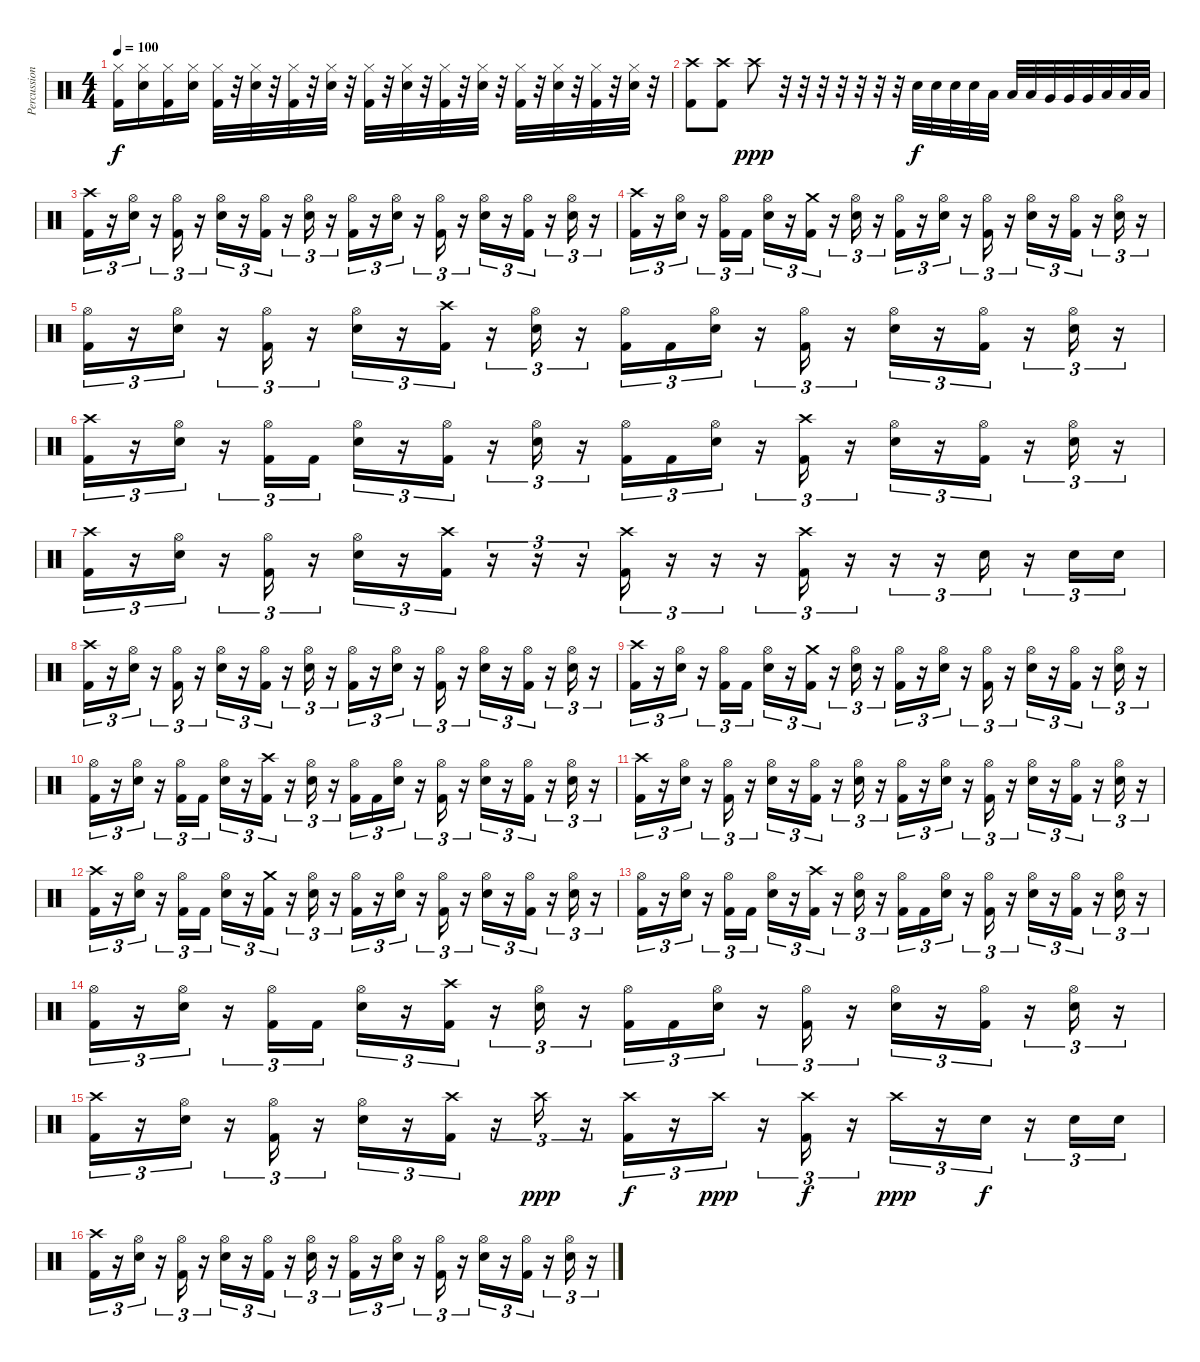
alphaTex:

\track ("Percussion" "Percussion") {instrument percussion}
\staff {score}
\articulation defaults
\ts (4 4)
\tempo 100
\clef neutral
\ks c
("Kick (hit) 2" "Hi-Hat (closed)").16{dy f} ("Hi-Hat (closed)" "Snare (hit) 2").16 ("Kick (hit) 2" "Hi-Hat (closed)").16 ("Hi-Hat (closed)" "Snare (hit) 2").16 ("Kick (hit) 2" "Hi-Hat (closed)").32 r.32 ("Snare (hit) 2" "Hi-Hat (closed)").32 r.32 ("Kick (hit) 2" "Hi-Hat (closed)").32 r.32 ("Hi-Hat (closed)" "Snare (hit) 2").32 r.32 ("Kick (hit) 2" "Hi-Hat (closed)").32 r.32 ("Hi-Hat (closed)" "Snare (hit) 2").32 r.32 ("Kick (hit) 2" "Hi-Hat (closed)").32 r.32 ("Hi-Hat (closed)" "Snare (hit) 2").32 r.32 ("Kick (hit) 2" "Hi-Hat (closed)").32 r.32 ("Hi-Hat (closed)" "Snare (hit) 2").32 r.32 ("Kick (hit) 2" "Hi-Hat (closed)").32 r.32 ("Hi-Hat (closed)" "Snare (hit) 2").32 r.32 |
("Crash high (hit)" "Kick (hit) 2").8 ("Crash high (hit)" "Kick (hit) 2").8 "Crash high (hit)".8{dy ppp} r.32 r.32 r.32 r.32 r.32 r.32 r.32 "Snare (hit) 2".32{dy f} "Snare (hit) 2".32 "Snare (hit) 2".32 "Snare (hit) 2".32 "Low Tom (hit)".32 "Low Tom (hit)".32 "Low Tom (hit)".32 "Very Low Tom (hit)".32 "Very Low Tom (hit)".32 "Very Low Tom (hit)".32 "Low Floor Tom (hit)".32 "Low Floor Tom (hit)".32 "Low Floor Tom (hit)".32 |
("Crash high (hit)" "Kick (hit) 2").16{tu (3 2)} r.16{tu (3 2)} ("Hi-Hat (open)" "Snare (hit) 2").16{tu (3 2)} r.16{tu (3 2)} ("Kick (hit) 2" "Hi-Hat (open)").16{tu (3 2)} r.16{tu (3 2)} ("Snare (hit) 2" "Hi-Hat (open)").16{tu (3 2)} r.16{tu (3 2)} ("Kick (hit) 2" "Hi-Hat (open)").16{tu (3 2)} r.16{tu (3 2)} ("Hi-Hat (open)" "Snare (hit) 2").16{tu (3 2)} r.16{tu (3 2)} ("Kick (hit) 2" "Hi-Hat (open)").16{tu (3 2)} r.16{tu (3 2)} ("Hi-Hat (open)" "Snare (hit) 2").16{tu (3 2)} r.16{tu (3 2)} ("Kick (hit) 2" "Hi-Hat (open)").16{tu (3 2)} r.16{tu (3 2)} ("Hi-Hat (open)" "Snare (hit) 2").16{tu (3 2)} r.16{tu (3 2)} ("Kick (hit) 2" "Hi-Hat (open)").16{tu (3 2)} r.16{tu (3 2)} ("Hi-Hat (open)" "Snare (hit) 2").16{tu (3 2)} r.16{tu (3 2)} |
("Crash high (hit)" "Kick (hit) 2").16{tu (3 2)} r.16{tu (3 2)} ("Hi-Hat (open)" "Snare (hit) 2").16{tu (3 2)} r.16{tu (3 2)} ("Kick (hit) 2" "Hi-Hat (open)").16{tu (3 2)} "Kick (hit) 2".16{tu (3 2)} ("Snare (hit) 2" "Hi-Hat (open)").16{tu (3 2)} r.16{tu (3 2)} ("Kick (hit) 2" "Crash medium (hit)").16{tu (3 2)} r.16{tu (3 2)} ("Hi-Hat (open)" "Snare (hit) 2").16{tu (3 2)} r.16{tu (3 2)} ("Kick (hit) 2" "Hi-Hat (open)").16{tu (3 2)} r.16{tu (3 2)} ("Hi-Hat (open)" "Snare (hit) 2").16{tu (3 2)} r.16{tu (3 2)} ("Kick (hit) 2" "Hi-Hat (open)").16{tu (3 2)} r.16{tu (3 2)} ("Hi-Hat (open)" "Snare (hit) 2").16{tu (3 2)} r.16{tu (3 2)} ("Kick (hit) 2" "Hi-Hat (open)").16{tu (3 2)} r.16{tu (3 2)} ("Hi-Hat (open)" "Snare (hit) 2").16{tu (3 2)} r.16{tu (3 2)} |
("Hi-Hat (open)" "Kick (hit) 2").16{tu (3 2)} r.16{tu (3 2)} ("Hi-Hat (open)" "Snare (hit) 2").16{tu (3 2)} r.16{tu (3 2)} ("Kick (hit) 2" "Hi-Hat (open)").16{tu (3 2)} r.16{tu (3 2)} ("Snare (hit) 2" "Hi-Hat (open)").16{tu (3 2)} r.16{tu (3 2)} ("Crash high (hit)" "Kick (hit) 2").16{tu (3 2)} r.16{tu (3 2)} ("Hi-Hat (open)" "Snare (hit) 2").16{tu (3 2)} r.16{tu (3 2)} ("Kick (hit) 2" "Hi-Hat (open)").16{tu (3 2)} "Kick (hit) 2".16{tu (3 2)} ("Hi-Hat (open)" "Snare (hit) 2").16{tu (3 2)} r.16{tu (3 2)} ("Kick (hit) 2" "Hi-Hat (open)").16{tu (3 2)} r.16{tu (3 2)} ("Hi-Hat (open)" "Snare (hit) 2").16{tu (3 2)} r.16{tu (3 2)} ("Kick (hit) 2" "Hi-Hat (open)").16{tu (3 2)} r.16{tu (3 2)} ("Hi-Hat (open)" "Snare (hit) 2").16{tu (3 2)} r.16{tu (3 2)} |
("Crash high (hit)" "Kick (hit) 2").16{tu (3 2)} r.16{tu (3 2)} ("Hi-Hat (open)" "Snare (hit) 2").16{tu (3 2)} r.16{tu (3 2)} ("Kick (hit) 2" "Hi-Hat (open)").16{tu (3 2)} "Kick (hit) 2".16{tu (3 2)} ("Snare (hit) 2" "Hi-Hat (open)").16{tu (3 2)} r.16{tu (3 2)} ("Kick (hit) 2" "Hi-Hat (open)").16{tu (3 2)} r.16{tu (3 2)} ("Hi-Hat (open)" "Snare (hit) 2").16{tu (3 2)} r.16{tu (3 2)} ("Kick (hit) 2" "Hi-Hat (open)").16{tu (3 2)} "Kick (hit) 2".16{tu (3 2)} ("Hi-Hat (open)" "Snare (hit) 2").16{tu (3 2)} r.16{tu (3 2)} ("Kick (hit) 2" "Crash high (hit)").16{tu (3 2)} r.16{tu (3 2)} ("Hi-Hat (open)" "Snare (hit) 2").16{tu (3 2)} r.16{tu (3 2)} ("Kick (hit) 2" "Hi-Hat (open)").16{tu (3 2)} r.16{tu (3 2)} ("Hi-Hat (open)" "Snare (hit) 2").16{tu (3 2)} r.16{tu (3 2)} |
("Crash high (hit)" "Kick (hit) 2").16{tu (3 2)} r.16{tu (3 2)} ("Hi-Hat (open)" "Snare (hit) 2").16{tu (3 2)} r.16{tu (3 2)} ("Kick (hit) 2" "Hi-Hat (open)").16{tu (3 2)} r.16{tu (3 2)} ("Snare (hit) 2" "Hi-Hat (open)").16{tu (3 2)} r.16{tu (3 2)} ("Kick (hit) 2" "Crash high (hit)").16{tu (3 2)} r.16{tu (3 2)} r.16{tu (3 2)} r.16{tu (3 2)} ("Kick (hit) 2" "Crash high (hit)").16{tu (3 2)} r.16{tu (3 2)} r.16{tu (3 2)} r.16{tu (3 2)} ("Kick (hit) 2" "Crash high (hit)").16{tu (3 2)} r.16{tu (3 2)} r.16{tu (3 2)} r.16{tu (3 2)} "Snare (hit) 2".16{tu (3 2)} r.16{tu (3 2)} "Snare (hit) 2".16{tu (3 2)} "Snare (hit) 2".16{tu (3 2)} |
("Crash high (hit)" "Kick (hit) 2").16{tu (3 2)} r.16{tu (3 2)} ("Hi-Hat (open)" "Snare (hit) 2").16{tu (3 2)} r.16{tu (3 2)} ("Kick (hit) 2" "Hi-Hat (open)").16{tu (3 2)} r.16{tu (3 2)} ("Snare (hit) 2" "Hi-Hat (open)").16{tu (3 2)} r.16{tu (3 2)} ("Kick (hit) 2" "Hi-Hat (open)").16{tu (3 2)} r.16{tu (3 2)} ("Hi-Hat (open)" "Snare (hit) 2").16{tu (3 2)} r.16{tu (3 2)} ("Kick (hit) 2" "Hi-Hat (open)").16{tu (3 2)} r.16{tu (3 2)} ("Hi-Hat (open)" "Snare (hit) 2").16{tu (3 2)} r.16{tu (3 2)} ("Kick (hit) 2" "Hi-Hat (open)").16{tu (3 2)} r.16{tu (3 2)} ("Hi-Hat (open)" "Snare (hit) 2").16{tu (3 2)} r.16{tu (3 2)} ("Kick (hit) 2" "Hi-Hat (open)").16{tu (3 2)} r.16{tu (3 2)} ("Hi-Hat (open)" "Snare (hit) 2").16{tu (3 2)} r.16{tu (3 2)} |
("Crash high (hit)" "Kick (hit) 2").16{tu (3 2)} r.16{tu (3 2)} ("Hi-Hat (open)" "Snare (hit) 2").16{tu (3 2)} r.16{tu (3 2)} ("Kick (hit) 2" "Hi-Hat (open)").16{tu (3 2)} "Kick (hit) 2".16{tu (3 2)} ("Snare (hit) 2" "Hi-Hat (open)").16{tu (3 2)} r.16{tu (3 2)} ("Kick (hit) 2" "Crash medium (hit)").16{tu (3 2)} r.16{tu (3 2)} ("Hi-Hat (open)" "Snare (hit) 2").16{tu (3 2)} r.16{tu (3 2)} ("Kick (hit) 2" "Hi-Hat (open)").16{tu (3 2)} r.16{tu (3 2)} ("Hi-Hat (open)" "Snare (hit) 2").16{tu (3 2)} r.16{tu (3 2)} ("Kick (hit) 2" "Hi-Hat (open)").16{tu (3 2)} r.16{tu (3 2)} ("Hi-Hat (open)" "Snare (hit) 2").16{tu (3 2)} r.16{tu (3 2)} ("Kick (hit) 2" "Hi-Hat (open)").16{tu (3 2)} r.16{tu (3 2)} ("Hi-Hat (open)" "Snare (hit) 2").16{tu (3 2)} r.16{tu (3 2)} |
("Hi-Hat (open)" "Kick (hit) 2").16{tu (3 2)} r.16{tu (3 2)} ("Hi-Hat (open)" "Snare (hit) 2").16{tu (3 2)} r.16{tu (3 2)} ("Kick (hit) 2" "Hi-Hat (open)").16{tu (3 2)} "Kick (hit) 2".16{tu (3 2)} ("Snare (hit) 2" "Hi-Hat (open)").16{tu (3 2)} r.16{tu (3 2)} ("Crash high (hit)" "Kick (hit) 2").16{tu (3 2)} r.16{tu (3 2)} ("Hi-Hat (open)" "Snare (hit) 2").16{tu (3 2)} r.16{tu (3 2)} ("Kick (hit) 2" "Hi-Hat (open)").16{tu (3 2)} "Kick (hit) 2".16{tu (3 2)} ("Hi-Hat (open)" "Snare (hit) 2").16{tu (3 2)} r.16{tu (3 2)} ("Kick (hit) 2" "Hi-Hat (open)").16{tu (3 2)} r.16{tu (3 2)} ("Hi-Hat (open)" "Snare (hit) 2").16{tu (3 2)} r.16{tu (3 2)} ("Kick (hit) 2" "Hi-Hat (open)").16{tu (3 2)} r.16{tu (3 2)} ("Hi-Hat (open)" "Snare (hit) 2").16{tu (3 2)} r.16{tu (3 2)} |
("Crash high (hit)" "Kick (hit) 2").16{tu (3 2)} r.16{tu (3 2)} ("Hi-Hat (open)" "Snare (hit) 2").16{tu (3 2)} r.16{tu (3 2)} ("Kick (hit) 2" "Hi-Hat (open)").16{tu (3 2)} r.16{tu (3 2)} ("Snare (hit) 2" "Hi-Hat (open)").16{tu (3 2)} r.16{tu (3 2)} ("Kick (hit) 2" "Hi-Hat (open)").16{tu (3 2)} r.16{tu (3 2)} ("Hi-Hat (open)" "Snare (hit) 2").16{tu (3 2)} r.16{tu (3 2)} ("Kick (hit) 2" "Hi-Hat (open)").16{tu (3 2)} r.16{tu (3 2)} ("Hi-Hat (open)" "Snare (hit) 2").16{tu (3 2)} r.16{tu (3 2)} ("Kick (hit) 2" "Hi-Hat (open)").16{tu (3 2)} r.16{tu (3 2)} ("Hi-Hat (open)" "Snare (hit) 2").16{tu (3 2)} r.16{tu (3 2)} ("Kick (hit) 2" "Hi-Hat (open)").16{tu (3 2)} r.16{tu (3 2)} ("Hi-Hat (open)" "Snare (hit) 2").16{tu (3 2)} r.16{tu (3 2)} |
("Crash high (hit)" "Kick (hit) 2").16{tu (3 2)} r.16{tu (3 2)} ("Hi-Hat (open)" "Snare (hit) 2").16{tu (3 2)} r.16{tu (3 2)} ("Kick (hit) 2" "Hi-Hat (open)").16{tu (3 2)} "Kick (hit) 2".16{tu (3 2)} ("Snare (hit) 2" "Hi-Hat (open)").16{tu (3 2)} r.16{tu (3 2)} ("Kick (hit) 2" "Crash medium (hit)").16{tu (3 2)} r.16{tu (3 2)} ("Hi-Hat (open)" "Snare (hit) 2").16{tu (3 2)} r.16{tu (3 2)} ("Kick (hit) 2" "Hi-Hat (open)").16{tu (3 2)} r.16{tu (3 2)} ("Hi-Hat (open)" "Snare (hit) 2").16{tu (3 2)} r.16{tu (3 2)} ("Kick (hit) 2" "Hi-Hat (open)").16{tu (3 2)} r.16{tu (3 2)} ("Hi-Hat (open)" "Snare (hit) 2").16{tu (3 2)} r.16{tu (3 2)} ("Kick (hit) 2" "Hi-Hat (open)").16{tu (3 2)} r.16{tu (3 2)} ("Hi-Hat (open)" "Snare (hit) 2").16{tu (3 2)} r.16{tu (3 2)} |
("Hi-Hat (open)" "Kick (hit) 2").16{tu (3 2)} r.16{tu (3 2)} ("Hi-Hat (open)" "Snare (hit) 2").16{tu (3 2)} r.16{tu (3 2)} ("Kick (hit) 2" "Hi-Hat (open)").16{tu (3 2)} "Kick (hit) 2".16{tu (3 2)} ("Snare (hit) 2" "Hi-Hat (open)").16{tu (3 2)} r.16{tu (3 2)} ("Crash high (hit)" "Kick (hit) 2").16{tu (3 2)} r.16{tu (3 2)} ("Hi-Hat (open)" "Snare (hit) 2").16{tu (3 2)} r.16{tu (3 2)} ("Kick (hit) 2" "Hi-Hat (open)").16{tu (3 2)} "Kick (hit) 2".16{tu (3 2)} ("Hi-Hat (open)" "Snare (hit) 2").16{tu (3 2)} r.16{tu (3 2)} ("Kick (hit) 2" "Hi-Hat (open)").16{tu (3 2)} r.16{tu (3 2)} ("Hi-Hat (open)" "Snare (hit) 2").16{tu (3 2)} r.16{tu (3 2)} ("Kick (hit) 2" "Hi-Hat (open)").16{tu (3 2)} r.16{tu (3 2)} ("Hi-Hat (open)" "Snare (hit) 2").16{tu (3 2)} r.16{tu (3 2)} |
("Hi-Hat (open)" "Kick (hit) 2").16{tu (3 2)} r.16{tu (3 2)} ("Hi-Hat (open)" "Snare (hit) 2").16{tu (3 2)} r.16{tu (3 2)} ("Kick (hit) 2" "Hi-Hat (open)").16{tu (3 2)} "Kick (hit) 2".16{tu (3 2)} ("Snare (hit) 2" "Hi-Hat (open)").16{tu (3 2)} r.16{tu (3 2)} ("Crash high (hit)" "Kick (hit) 2").16{tu (3 2)} r.16{tu (3 2)} ("Hi-Hat (open)" "Snare (hit) 2").16{tu (3 2)} r.16{tu (3 2)} ("Kick (hit) 2" "Hi-Hat (open)").16{tu (3 2)} "Kick (hit) 2".16{tu (3 2)} ("Hi-Hat (open)" "Snare (hit) 2").16{tu (3 2)} r.16{tu (3 2)} ("Kick (hit) 2" "Hi-Hat (open)").16{tu (3 2)} r.16{tu (3 2)} ("Hi-Hat (open)" "Snare (hit) 2").16{tu (3 2)} r.16{tu (3 2)} ("Kick (hit) 2" "Hi-Hat (open)").16{tu (3 2)} r.16{tu (3 2)} ("Hi-Hat (open)" "Snare (hit) 2").16{tu (3 2)} r.16{tu (3 2)} |
("Crash high (hit)" "Kick (hit) 2").16{tu (3 2)} r.16{tu (3 2)} ("Hi-Hat (open)" "Snare (hit) 2").16{tu (3 2)} r.16{tu (3 2)} ("Kick (hit) 2" "Hi-Hat (open)").16{tu (3 2)} r.16{tu (3 2)} ("Snare (hit) 2" "Hi-Hat (open)").16{tu (3 2)} r.16{tu (3 2)} ("Kick (hit) 2" "Crash high (hit)").16{tu (3 2)} r.16{tu (3 2)} "Crash high (hit)".16{tu (3 2) dy ppp} r.16{tu (3 2)} ("Kick (hit) 2" "Crash high (hit)").16{tu (3 2) dy f} r.16{tu (3 2)} "Crash high (hit)".16{tu (3 2) dy ppp} r.16{tu (3 2)} ("Kick (hit) 2" "Crash high (hit)").16{tu (3 2) dy f} r.16{tu (3 2)} "Crash high (hit)".16{tu (3 2) dy ppp} r.16{tu (3 2)} "Snare (hit) 2".16{tu (3 2) dy f} r.16{tu (3 2)} "Snare (hit) 2".16{tu (3 2)} "Snare (hit) 2".16{tu (3 2)} |
("Crash high (hit)" "Kick (hit) 2").16{tu (3 2)} r.16{tu (3 2)} ("Hi-Hat (open)" "Snare (hit) 2").16{tu (3 2)} r.16{tu (3 2)} ("Kick (hit) 2" "Hi-Hat (open)").16{tu (3 2)} r.16{tu (3 2)} ("Snare (hit) 2" "Hi-Hat (open)").16{tu (3 2)} r.16{tu (3 2)} ("Kick (hit) 2" "Hi-Hat (open)").16{tu (3 2)} r.16{tu (3 2)} ("Hi-Hat (open)" "Snare (hit) 2").16{tu (3 2)} r.16{tu (3 2)} ("Kick (hit) 2" "Hi-Hat (open)").16{tu (3 2)} r.16{tu (3 2)} ("Hi-Hat (open)" "Snare (hit) 2").16{tu (3 2)} r.16{tu (3 2)} ("Kick (hit) 2" "Hi-Hat (open)").16{tu (3 2)} r.16{tu (3 2)} ("Hi-Hat (open)" "Snare (hit) 2").16{tu (3 2)} r.16{tu (3 2)} ("Kick (hit) 2" "Hi-Hat (open)").16{tu (3 2)} r.16{tu (3 2)} ("Hi-Hat (open)" "Snare (hit) 2").16{tu (3 2)} r.16{tu (3 2)}
